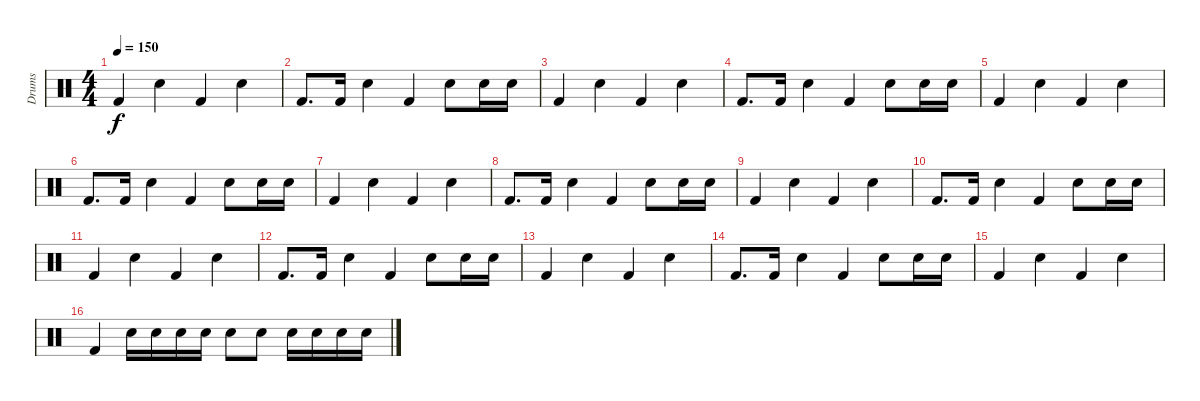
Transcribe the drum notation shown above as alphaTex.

\track ("Drums" "Drums") {instrument percussion}
\staff {score}
\articulation defaults
\ts (4 4)
\tempo 150
\clef neutral
\ks c "Kick (hit) 2".4{dy f} "Electric Snare (hit)".4 "Kick (hit) 2".4 "Electric Snare (hit)".4
|
"Kick (hit) 2".8{d} "Kick (hit) 2".16 "Electric Snare (hit)".4 "Kick (hit) 2".4 "Electric Snare (hit)".8 "Electric Snare (hit)".16 "Electric Snare (hit)".16 |
"Kick (hit) 2".4 "Electric Snare (hit)".4 "Kick (hit) 2".4 "Electric Snare (hit)".4 |
"Kick (hit) 2".8{d} "Kick (hit) 2".16 "Electric Snare (hit)".4 "Kick (hit) 2".4 "Electric Snare (hit)".8 "Electric Snare (hit)".16 "Electric Snare (hit)".16 |
"Kick (hit) 2".4 "Electric Snare (hit)".4 "Kick (hit) 2".4 "Electric Snare (hit)".4 |
"Kick (hit) 2".8{d} "Kick (hit) 2".16 "Electric Snare (hit)".4 "Kick (hit) 2".4 "Electric Snare (hit)".8 "Electric Snare (hit)".16 "Electric Snare (hit)".16 |
"Kick (hit) 2".4 "Electric Snare (hit)".4 "Kick (hit) 2".4 "Electric Snare (hit)".4 |
"Kick (hit) 2".8{d} "Kick (hit) 2".16 "Electric Snare (hit)".4 "Kick (hit) 2".4 "Electric Snare (hit)".8 "Electric Snare (hit)".16 "Electric Snare (hit)".16 |
"Kick (hit) 2".4 "Electric Snare (hit)".4 "Kick (hit) 2".4 "Electric Snare (hit)".4 |
"Kick (hit) 2".8{d} "Kick (hit) 2".16 "Electric Snare (hit)".4 "Kick (hit) 2".4 "Electric Snare (hit)".8 "Electric Snare (hit)".16 "Electric Snare (hit)".16 |
"Kick (hit) 2".4 "Electric Snare (hit)".4 "Kick (hit) 2".4 "Electric Snare (hit)".4 |
"Kick (hit) 2".8{d} "Kick (hit) 2".16 "Electric Snare (hit)".4 "Kick (hit) 2".4 "Electric Snare (hit)".8 "Electric Snare (hit)".16 "Electric Snare (hit)".16 |
"Kick (hit) 2".4 "Electric Snare (hit)".4 "Kick (hit) 2".4 "Electric Snare (hit)".4 |
"Kick (hit) 2".8{d} "Kick (hit) 2".16 "Electric Snare (hit)".4 "Kick (hit) 2".4 "Electric Snare (hit)".8 "Electric Snare (hit)".16 "Electric Snare (hit)".16 |
"Kick (hit) 2".4 "Electric Snare (hit)".4 "Kick (hit) 2".4 "Electric Snare (hit)".4 |
"Kick (hit) 2".4 "Electric Snare (hit)".16 "Electric Snare (hit)".16 "Electric Snare (hit)".16 "Electric Snare (hit)".16 "Electric Snare (hit)".8 "Electric Snare (hit)".8 "Electric Snare (hit)".16 "Electric Snare (hit)".16 "Electric Snare (hit)".16 "Electric Snare (hit)".16
